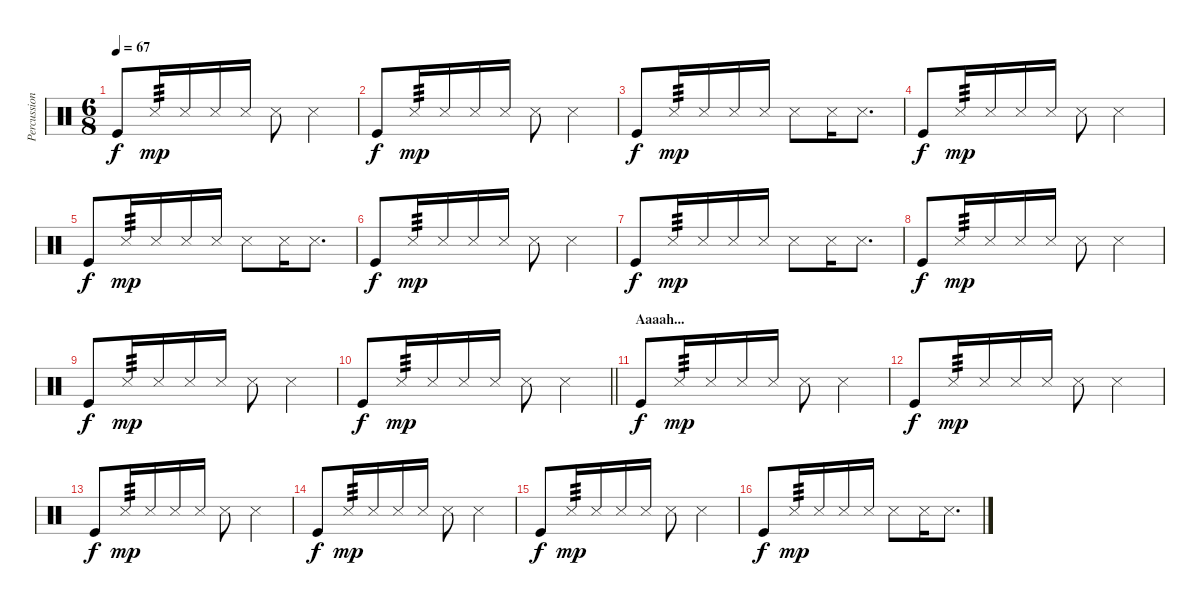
\track ("Percussions" "Percussion") {instrument percussion}
\staff {score}
\articulation defaults
\ts (6 8)
\tempo 67
\clef neutral
\ks c "Kick (hit)".8{dy f} "Snare (side stick) 3".16{tp 3 dy mp} "Snare (side stick) 3".16 "Snare (side stick) 3".16 "Snare (side stick) 3".16 "Snare (side stick) 3".8 "Snare (side stick) 3".4
|
"Kick (hit)".8{dy f} "Snare (side stick) 3".16{tp 3 dy mp} "Snare (side stick) 3".16 "Snare (side stick) 3".16 "Snare (side stick) 3".16 "Snare (side stick) 3".8 "Snare (side stick) 3".4 |
"Kick (hit)".8{dy f} "Snare (side stick) 3".16{tp 3 dy mp} "Snare (side stick) 3".16 "Snare (side stick) 3".16 "Snare (side stick) 3".16 "Snare (side stick) 3".8 "Snare (side stick) 3".16 "Snare (side stick) 3".8{d} |
"Kick (hit)".8{dy f} "Snare (side stick) 3".16{tp 3 dy mp} "Snare (side stick) 3".16 "Snare (side stick) 3".16 "Snare (side stick) 3".16 "Snare (side stick) 3".8 "Snare (side stick) 3".4 |
"Kick (hit)".8{dy f} "Snare (side stick) 3".16{tp 3 dy mp} "Snare (side stick) 3".16 "Snare (side stick) 3".16 "Snare (side stick) 3".16 "Snare (side stick) 3".8 "Snare (side stick) 3".16 "Snare (side stick) 3".8{d} |
"Kick (hit)".8{dy f} "Snare (side stick) 3".16{tp 3 dy mp} "Snare (side stick) 3".16 "Snare (side stick) 3".16 "Snare (side stick) 3".16 "Snare (side stick) 3".8 "Snare (side stick) 3".4 |
"Kick (hit)".8{dy f} "Snare (side stick) 3".16{tp 3 dy mp} "Snare (side stick) 3".16 "Snare (side stick) 3".16 "Snare (side stick) 3".16 "Snare (side stick) 3".8 "Snare (side stick) 3".16 "Snare (side stick) 3".8{d} |
"Kick (hit)".8{dy f} "Snare (side stick) 3".16{tp 3 dy mp} "Snare (side stick) 3".16 "Snare (side stick) 3".16 "Snare (side stick) 3".16 "Snare (side stick) 3".8 "Snare (side stick) 3".4 |
"Kick (hit)".8{dy f} "Snare (side stick) 3".16{tp 3 dy mp} "Snare (side stick) 3".16 "Snare (side stick) 3".16 "Snare (side stick) 3".16 "Snare (side stick) 3".8 "Snare (side stick) 3".4 |
\barLineRight lightlight "Kick (hit)".8{dy f} "Snare (side stick) 3".16{tp 3 dy mp} "Snare (side stick) 3".16 "Snare (side stick) 3".16 "Snare (side stick) 3".16 "Snare (side stick) 3".8 "Snare (side stick) 3".4
|
\section ("" "Aaaah...")
"Kick (hit)".8{dy f} "Snare (side stick) 3".16{tp 3 dy mp} "Snare (side stick) 3".16 "Snare (side stick) 3".16 "Snare (side stick) 3".16 "Snare (side stick) 3".8 "Snare (side stick) 3".4 |
"Kick (hit)".8{dy f} "Snare (side stick) 3".16{tp 3 dy mp} "Snare (side stick) 3".16 "Snare (side stick) 3".16 "Snare (side stick) 3".16 "Snare (side stick) 3".8 "Snare (side stick) 3".4 |
"Kick (hit)".8{dy f} "Snare (side stick) 3".16{tp 3 dy mp} "Snare (side stick) 3".16 "Snare (side stick) 3".16 "Snare (side stick) 3".16 "Snare (side stick) 3".8 "Snare (side stick) 3".4 |
"Kick (hit)".8{dy f} "Snare (side stick) 3".16{tp 3 dy mp} "Snare (side stick) 3".16 "Snare (side stick) 3".16 "Snare (side stick) 3".16 "Snare (side stick) 3".8 "Snare (side stick) 3".4 |
"Kick (hit)".8{dy f} "Snare (side stick) 3".16{tp 3 dy mp} "Snare (side stick) 3".16 "Snare (side stick) 3".16 "Snare (side stick) 3".16 "Snare (side stick) 3".8 "Snare (side stick) 3".4 |
"Kick (hit)".8{dy f} "Snare (side stick) 3".16{tp 3 dy mp} "Snare (side stick) 3".16 "Snare (side stick) 3".16 "Snare (side stick) 3".16 "Snare (side stick) 3".8 "Snare (side stick) 3".16 "Snare (side stick) 3".8{d}
